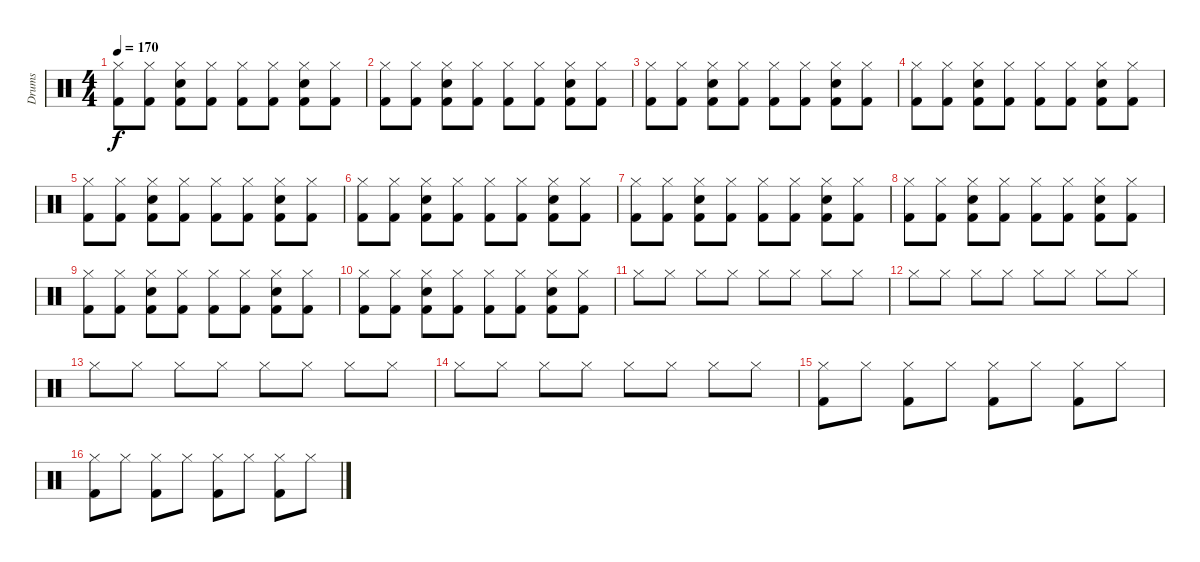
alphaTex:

\track ("Drums" "Drums") {instrument percussion}
\staff {score}
\articulation defaults
\ts (4 4)
\tempo 170
\clef neutral
\ks c
("Hi-Hat (closed)" "Kick (hit) 2").8{dy f} ("Hi-Hat (closed)" "Kick (hit) 2").8 ("Hi-Hat (closed)" "Electric Snare (hit)" "Kick (hit) 2").8 ("Hi-Hat (closed)" "Kick (hit) 2").8 ("Hi-Hat (closed)" "Kick (hit) 2").8 ("Hi-Hat (closed)" "Kick (hit) 2").8 ("Hi-Hat (closed)" "Electric Snare (hit)" "Kick (hit) 2").8 ("Hi-Hat (closed)" "Kick (hit) 2").8 |
("Hi-Hat (closed)" "Kick (hit) 2").8 ("Hi-Hat (closed)" "Kick (hit) 2").8 ("Hi-Hat (closed)" "Electric Snare (hit)" "Kick (hit) 2").8 ("Hi-Hat (closed)" "Kick (hit) 2").8 ("Hi-Hat (closed)" "Kick (hit) 2").8 ("Hi-Hat (closed)" "Kick (hit) 2").8 ("Hi-Hat (closed)" "Electric Snare (hit)" "Kick (hit) 2").8 ("Hi-Hat (closed)" "Kick (hit) 2").8 |
("Hi-Hat (closed)" "Kick (hit) 2").8 ("Hi-Hat (closed)" "Kick (hit) 2").8 ("Hi-Hat (closed)" "Electric Snare (hit)" "Kick (hit) 2").8 ("Hi-Hat (closed)" "Kick (hit) 2").8 ("Hi-Hat (closed)" "Kick (hit) 2").8 ("Hi-Hat (closed)" "Kick (hit) 2").8 ("Hi-Hat (closed)" "Electric Snare (hit)" "Kick (hit) 2").8 ("Hi-Hat (closed)" "Kick (hit) 2").8 |
("Hi-Hat (closed)" "Kick (hit) 2").8 ("Hi-Hat (closed)" "Kick (hit) 2").8 ("Hi-Hat (closed)" "Electric Snare (hit)" "Kick (hit) 2").8 ("Hi-Hat (closed)" "Kick (hit) 2").8 ("Hi-Hat (closed)" "Kick (hit) 2").8 ("Hi-Hat (closed)" "Kick (hit) 2").8 ("Hi-Hat (closed)" "Electric Snare (hit)" "Kick (hit) 2").8 ("Hi-Hat (closed)" "Kick (hit) 2").8 |
("Hi-Hat (closed)" "Kick (hit) 2").8 ("Hi-Hat (closed)" "Kick (hit) 2").8 ("Hi-Hat (closed)" "Electric Snare (hit)" "Kick (hit) 2").8 ("Hi-Hat (closed)" "Kick (hit) 2").8 ("Hi-Hat (closed)" "Kick (hit) 2").8 ("Hi-Hat (closed)" "Kick (hit) 2").8 ("Hi-Hat (closed)" "Electric Snare (hit)" "Kick (hit) 2").8 ("Hi-Hat (closed)" "Kick (hit) 2").8 |
("Hi-Hat (closed)" "Kick (hit) 2").8 ("Hi-Hat (closed)" "Kick (hit) 2").8 ("Hi-Hat (closed)" "Electric Snare (hit)" "Kick (hit) 2").8 ("Hi-Hat (closed)" "Kick (hit) 2").8 ("Hi-Hat (closed)" "Kick (hit) 2").8 ("Hi-Hat (closed)" "Kick (hit) 2").8 ("Hi-Hat (closed)" "Electric Snare (hit)" "Kick (hit) 2").8 ("Hi-Hat (closed)" "Kick (hit) 2").8 |
("Hi-Hat (closed)" "Kick (hit) 2").8 ("Hi-Hat (closed)" "Kick (hit) 2").8 ("Hi-Hat (closed)" "Electric Snare (hit)" "Kick (hit) 2").8 ("Hi-Hat (closed)" "Kick (hit) 2").8 ("Hi-Hat (closed)" "Kick (hit) 2").8 ("Hi-Hat (closed)" "Kick (hit) 2").8 ("Hi-Hat (closed)" "Electric Snare (hit)" "Kick (hit) 2").8 ("Hi-Hat (closed)" "Kick (hit) 2").8 |
("Hi-Hat (closed)" "Kick (hit) 2").8 ("Hi-Hat (closed)" "Kick (hit) 2").8 ("Hi-Hat (closed)" "Electric Snare (hit)" "Kick (hit) 2").8 ("Hi-Hat (closed)" "Kick (hit) 2").8 ("Hi-Hat (closed)" "Kick (hit) 2").8 ("Hi-Hat (closed)" "Kick (hit) 2").8 ("Hi-Hat (closed)" "Electric Snare (hit)" "Kick (hit) 2").8 ("Hi-Hat (closed)" "Kick (hit) 2").8 |
("Hi-Hat (closed)" "Kick (hit) 2").8 ("Hi-Hat (closed)" "Kick (hit) 2").8 ("Hi-Hat (closed)" "Electric Snare (hit)" "Kick (hit) 2").8 ("Hi-Hat (closed)" "Kick (hit) 2").8 ("Hi-Hat (closed)" "Kick (hit) 2").8 ("Hi-Hat (closed)" "Kick (hit) 2").8 ("Hi-Hat (closed)" "Electric Snare (hit)" "Kick (hit) 2").8 ("Hi-Hat (closed)" "Kick (hit) 2").8 |
("Hi-Hat (closed)" "Kick (hit) 2").8 ("Hi-Hat (closed)" "Kick (hit) 2").8 ("Hi-Hat (closed)" "Electric Snare (hit)" "Kick (hit) 2").8 ("Hi-Hat (closed)" "Kick (hit) 2").8 ("Hi-Hat (closed)" "Kick (hit) 2").8 ("Hi-Hat (closed)" "Kick (hit) 2").8 ("Hi-Hat (closed)" "Electric Snare (hit)" "Kick (hit) 2").8 ("Hi-Hat (closed)" "Kick (hit) 2").8 |
"Hi-Hat (closed)".8 "Hi-Hat (closed)".8 "Hi-Hat (closed)".8 "Hi-Hat (closed)".8 "Hi-Hat (closed)".8 "Hi-Hat (closed)".8 "Hi-Hat (closed)".8 "Hi-Hat (closed)".8 |
"Hi-Hat (closed)".8 "Hi-Hat (closed)".8 "Hi-Hat (closed)".8 "Hi-Hat (closed)".8 "Hi-Hat (closed)".8 "Hi-Hat (closed)".8 "Hi-Hat (closed)".8 "Hi-Hat (closed)".8 |
"Hi-Hat (closed)".8 "Hi-Hat (closed)".8 "Hi-Hat (closed)".8 "Hi-Hat (closed)".8 "Hi-Hat (closed)".8 "Hi-Hat (closed)".8 "Hi-Hat (closed)".8 "Hi-Hat (closed)".8 |
"Hi-Hat (closed)".8 "Hi-Hat (closed)".8 "Hi-Hat (closed)".8 "Hi-Hat (closed)".8 "Hi-Hat (closed)".8 "Hi-Hat (closed)".8 "Hi-Hat (closed)".8 "Hi-Hat (closed)".8 |
("Hi-Hat (closed)" "Kick (hit) 2").8 "Hi-Hat (closed)".8 ("Hi-Hat (closed)" "Kick (hit) 2").8 "Hi-Hat (closed)".8 ("Hi-Hat (closed)" "Kick (hit) 2").8 "Hi-Hat (closed)".8 ("Hi-Hat (closed)" "Kick (hit) 2").8 "Hi-Hat (closed)".8 |
("Hi-Hat (closed)" "Kick (hit) 2").8 "Hi-Hat (closed)".8 ("Hi-Hat (closed)" "Kick (hit) 2").8 "Hi-Hat (closed)".8 ("Hi-Hat (closed)" "Kick (hit) 2").8 "Hi-Hat (closed)".8 ("Hi-Hat (closed)" "Kick (hit) 2").8 "Hi-Hat (closed)".8
